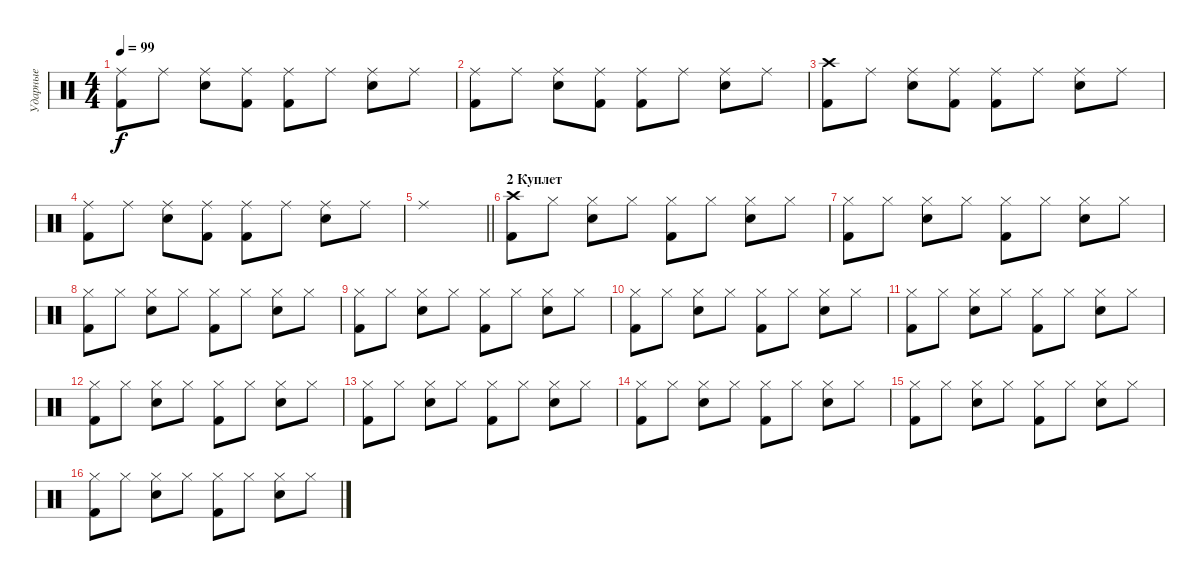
\track ("Ударные" "Ударные") {instrument percussion}
\staff
\articulation defaults
\ts (4 4)
\tempo 99
\clef neutral
\ks c
("Ride (middle)" "Kick (hit) 2").8{dy f} "Ride (middle)".8 ("Ride (middle)" "Electric Snare (hit)").8 ("Ride (middle)" "Kick (hit) 2").8 ("Ride (middle)" "Kick (hit) 2").8 "Ride (middle)".8 ("Ride (middle)" "Electric Snare (hit)").8 "Ride (middle)".8 |
("Ride (middle)" "Kick (hit) 2").8 "Ride (middle)".8 ("Ride (middle)" "Electric Snare (hit)").8 ("Ride (middle)" "Kick (hit) 2").8 ("Ride (middle)" "Kick (hit) 2").8 "Ride (middle)".8 ("Ride (middle)" "Electric Snare (hit)").8 "Ride (middle)".8 |
("Crash high (hit)" "Kick (hit) 2").8 "Ride (middle)".8 ("Ride (middle)" "Electric Snare (hit)").8 ("Ride (middle)" "Kick (hit) 2").8 ("Ride (middle)" "Kick (hit) 2").8 "Ride (middle)".8 ("Ride (middle)" "Electric Snare (hit)").8 "Ride (middle)".8 |
("Ride (middle)" "Kick (hit) 2").8 "Ride (middle)".8 ("Ride (middle)" "Electric Snare (hit)").8 ("Ride (middle)" "Kick (hit) 2").8 ("Ride (middle)" "Kick (hit) 2").8 "Ride (middle)".8 ("Ride (middle)" "Electric Snare (hit)").8 "Ride (middle)".8 |
\barLineRight lightlight "Ride (middle)".1
|
\section ("" "2 Куплет")
("Crash high (hit)" "Kick (hit) 2").8 "Hi-Hat (closed)".8 ("Hi-Hat (closed)" "Electric Snare (hit)").8 "Hi-Hat (closed)".8 ("Hi-Hat (closed)" "Kick (hit) 2").8 "Hi-Hat (closed)".8 ("Hi-Hat (closed)" "Electric Snare (hit)").8 "Hi-Hat (closed)".8 |
("Hi-Hat (closed)" "Kick (hit) 2").8 "Hi-Hat (closed)".8 ("Hi-Hat (closed)" "Electric Snare (hit)").8 "Hi-Hat (closed)".8 ("Hi-Hat (closed)" "Kick (hit) 2").8 "Hi-Hat (closed)".8 ("Hi-Hat (closed)" "Electric Snare (hit)").8 "Hi-Hat (closed)".8 |
("Hi-Hat (closed)" "Kick (hit) 2").8 "Hi-Hat (closed)".8 ("Hi-Hat (closed)" "Electric Snare (hit)").8 "Hi-Hat (closed)".8 ("Hi-Hat (closed)" "Kick (hit) 2").8 "Hi-Hat (closed)".8 ("Hi-Hat (closed)" "Electric Snare (hit)").8 "Hi-Hat (closed)".8 |
("Hi-Hat (closed)" "Kick (hit) 2").8 "Hi-Hat (closed)".8 ("Hi-Hat (closed)" "Electric Snare (hit)").8 "Hi-Hat (closed)".8 ("Hi-Hat (closed)" "Kick (hit) 2").8 "Hi-Hat (closed)".8 ("Hi-Hat (closed)" "Electric Snare (hit)").8 "Hi-Hat (closed)".8 |
("Hi-Hat (closed)" "Kick (hit) 2").8 "Hi-Hat (closed)".8 ("Hi-Hat (closed)" "Electric Snare (hit)").8 "Hi-Hat (closed)".8 ("Hi-Hat (closed)" "Kick (hit) 2").8 "Hi-Hat (closed)".8 ("Hi-Hat (closed)" "Electric Snare (hit)").8 "Hi-Hat (closed)".8 |
("Hi-Hat (closed)" "Kick (hit) 2").8 "Hi-Hat (closed)".8 ("Hi-Hat (closed)" "Electric Snare (hit)").8 "Hi-Hat (closed)".8 ("Hi-Hat (closed)" "Kick (hit) 2").8 "Hi-Hat (closed)".8 ("Hi-Hat (closed)" "Electric Snare (hit)").8 "Hi-Hat (closed)".8 |
("Hi-Hat (closed)" "Kick (hit) 2").8 "Hi-Hat (closed)".8 ("Hi-Hat (closed)" "Electric Snare (hit)").8 "Hi-Hat (closed)".8 ("Hi-Hat (closed)" "Kick (hit) 2").8 "Hi-Hat (closed)".8 ("Hi-Hat (closed)" "Electric Snare (hit)").8 "Hi-Hat (closed)".8 |
("Hi-Hat (closed)" "Kick (hit) 2").8 "Hi-Hat (closed)".8 ("Hi-Hat (closed)" "Electric Snare (hit)").8 "Hi-Hat (closed)".8 ("Hi-Hat (closed)" "Kick (hit) 2").8 "Hi-Hat (closed)".8 ("Hi-Hat (closed)" "Electric Snare (hit)").8 "Hi-Hat (closed)".8 |
("Hi-Hat (closed)" "Kick (hit) 2").8 "Hi-Hat (closed)".8 ("Hi-Hat (closed)" "Electric Snare (hit)").8 "Hi-Hat (closed)".8 ("Hi-Hat (closed)" "Kick (hit) 2").8 "Hi-Hat (closed)".8 ("Hi-Hat (closed)" "Electric Snare (hit)").8 "Hi-Hat (closed)".8 |
("Hi-Hat (closed)" "Kick (hit) 2").8 "Hi-Hat (closed)".8 ("Hi-Hat (closed)" "Electric Snare (hit)").8 "Hi-Hat (closed)".8 ("Hi-Hat (closed)" "Kick (hit) 2").8 "Hi-Hat (closed)".8 ("Hi-Hat (closed)" "Electric Snare (hit)").8 "Hi-Hat (closed)".8 |
("Hi-Hat (closed)" "Kick (hit) 2").8 "Hi-Hat (closed)".8 ("Hi-Hat (closed)" "Electric Snare (hit)").8 "Hi-Hat (closed)".8 ("Hi-Hat (closed)" "Kick (hit) 2").8 "Hi-Hat (closed)".8 ("Hi-Hat (closed)" "Electric Snare (hit)").8 "Hi-Hat (closed)".8
